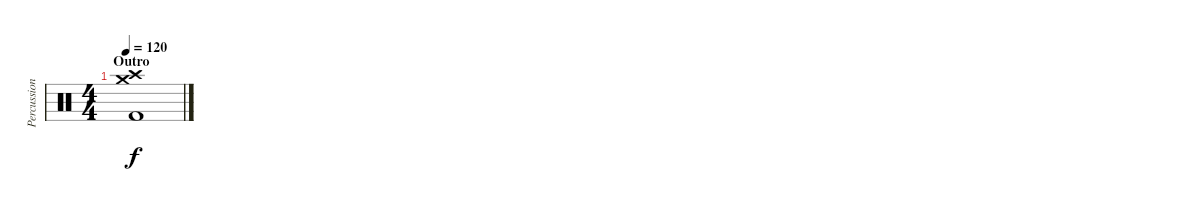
\track ("Percussion" "Percussion") {instrument percussion}
\staff {score}
\articulation defaults
\ts (4 4)
\section ("" "Outro")
\tempo 120
\clef neutral
\ks c
("Kick (hit) 2" "Crash medium (hit)" "Crash high (hit)").1{dy f}
